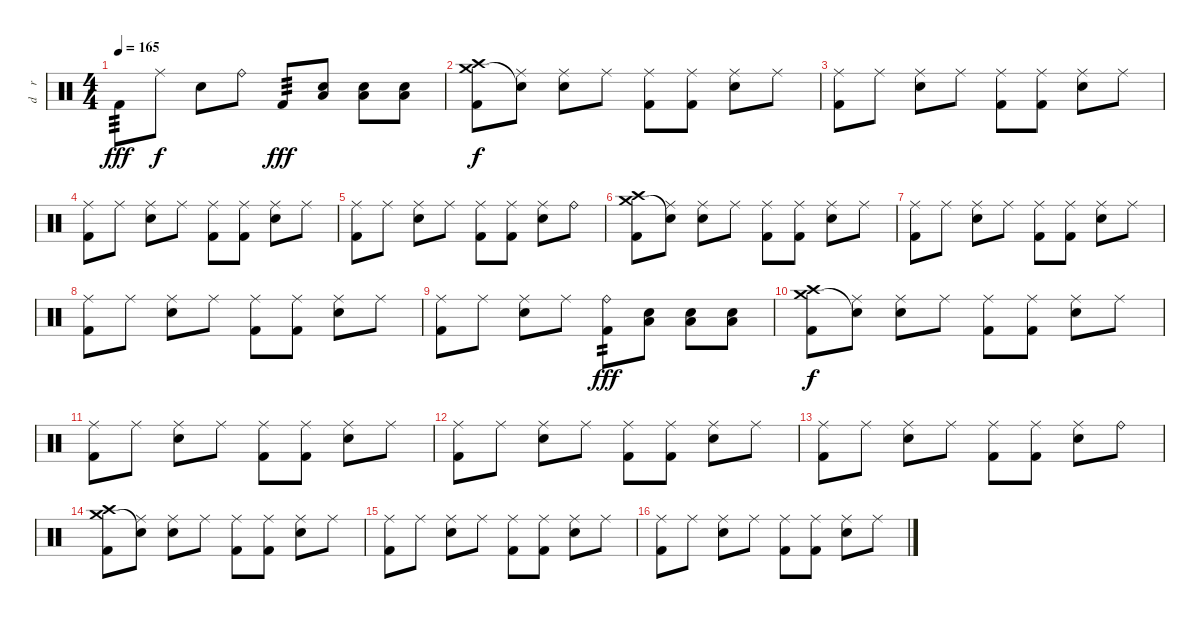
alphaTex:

\track ("d    r    u    m    s" "d    r    ") {instrument percussion}
\staff {score}
\articulation defaults
\ts (4 4)
\tempo 165
\clef neutral
\ks c "Kick (hit) 2".8{tp 3 dy fff} "Ride (middle)".8{dy f} "Electric Snare (hit)".8 "Ride (bell)".8 "Kick (hit) 2".8{tp 3 dy fff}
("Low Floor Tom (hit)" "Electric Snare (hit)").8 ("Low Floor Tom (hit)" "Electric Snare (hit)").8 ("Low Floor Tom (hit)" "Electric Snare (hit)").8 |
("Crash high (hit)" "Crash medium (hit)" "Kick (hit) 2").8{dy f} ("Ride (middle)" "Snare (hit)"{t}).8 ("Ride (middle)" "Electric Snare (hit)").8 "Ride (middle)".8 ("Ride (middle)" "Kick (hit) 2").8 ("Ride (middle)" "Kick (hit) 2").8 ("Ride (middle)" "Electric Snare (hit)").8 "Ride (middle)".8 |
("Ride (middle)" "Kick (hit) 2").8 "Ride (middle)".8 ("Ride (middle)" "Electric Snare (hit)").8 "Ride (middle)".8 ("Ride (middle)" "Kick (hit) 2").8 ("Ride (middle)" "Kick (hit) 2").8 ("Ride (middle)" "Electric Snare (hit)").8 "Ride (middle)".8 |
("Ride (middle)" "Kick (hit) 2").8 "Ride (middle)".8 ("Ride (middle)" "Electric Snare (hit)").8 "Ride (middle)".8 ("Ride (middle)" "Kick (hit) 2").8 ("Ride (middle)" "Kick (hit) 2").8 ("Ride (middle)" "Electric Snare (hit)").8 "Ride (middle)".8 |
("Ride (middle)" "Kick (hit) 2").8 "Ride (middle)".8 ("Ride (middle)" "Electric Snare (hit)").8 "Ride (middle)".8 ("Ride (middle)" "Kick (hit) 2").8 ("Ride (middle)" "Kick (hit) 2").8 ("Ride (middle)" "Electric Snare (hit)").8 "Ride (bell)".8 |
("Crash high (hit)" "Crash medium (hit)" "Kick (hit) 2").8 ("Ride (middle)" "Snare (hit)"{t}).8 ("Ride (middle)" "Electric Snare (hit)").8 "Ride (middle)".8 ("Ride (middle)" "Kick (hit) 2").8 ("Ride (middle)" "Kick (hit) 2").8 ("Ride (middle)" "Electric Snare (hit)").8 "Ride (middle)".8 |
("Ride (middle)" "Kick (hit) 2").8 "Ride (middle)".8 ("Ride (middle)" "Electric Snare (hit)").8 "Ride (middle)".8 ("Ride (middle)" "Kick (hit) 2").8 ("Ride (middle)" "Kick (hit) 2").8 ("Ride (middle)" "Electric Snare (hit)").8 "Ride (middle)".8 |
("Ride (middle)" "Kick (hit) 2").8 "Ride (middle)".8 ("Ride (middle)" "Electric Snare (hit)").8 "Ride (middle)".8 ("Ride (middle)" "Kick (hit) 2").8 ("Ride (middle)" "Kick (hit) 2").8 ("Ride (middle)" "Electric Snare (hit)").8 "Ride (middle)".8 |
("Ride (middle)" "Kick (hit) 2").8 "Ride (middle)".8 ("Ride (middle)" "Electric Snare (hit)").8 "Ride (middle)".8 ("Ride (bell)" "Kick (hit) 2").8{tp 2 dy fff} ("Low Floor Tom (hit)" "Electric Snare (hit)").8 ("Low Floor Tom (hit)" "Electric Snare (hit)").8 ("Low Floor Tom (hit)" "Electric Snare (hit)").8 |
("Crash high (hit)" "Crash medium (hit)" "Kick (hit) 2").8{dy f} ("Ride (middle)" "Snare (hit)"{t}).8 ("Ride (middle)" "Electric Snare (hit)").8 "Ride (middle)".8 ("Ride (middle)" "Kick (hit) 2").8 ("Ride (middle)" "Kick (hit) 2").8 ("Ride (middle)" "Electric Snare (hit)").8 "Ride (middle)".8 |
("Ride (middle)" "Kick (hit) 2").8 "Ride (middle)".8 ("Ride (middle)" "Electric Snare (hit)").8 "Ride (middle)".8 ("Ride (middle)" "Kick (hit) 2").8 ("Ride (middle)" "Kick (hit) 2").8 ("Ride (middle)" "Electric Snare (hit)").8 "Ride (middle)".8 |
("Ride (middle)" "Kick (hit) 2").8 "Ride (middle)".8 ("Ride (middle)" "Electric Snare (hit)").8 "Ride (middle)".8 ("Ride (middle)" "Kick (hit) 2").8 ("Ride (middle)" "Kick (hit) 2").8 ("Ride (middle)" "Electric Snare (hit)").8 "Ride (middle)".8 |
("Ride (middle)" "Kick (hit) 2").8 "Ride (middle)".8 ("Ride (middle)" "Electric Snare (hit)").8 "Ride (middle)".8 ("Ride (middle)" "Kick (hit) 2").8 ("Ride (middle)" "Kick (hit) 2").8 ("Ride (middle)" "Electric Snare (hit)").8 "Ride (bell)".8 |
("Crash high (hit)" "Crash medium (hit)" "Kick (hit) 2").8 ("Ride (middle)" "Snare (hit)"{t}).8 ("Ride (middle)" "Electric Snare (hit)").8 "Ride (middle)".8 ("Ride (middle)" "Kick (hit) 2").8 ("Ride (middle)" "Kick (hit) 2").8 ("Ride (middle)" "Electric Snare (hit)").8 "Ride (middle)".8 |
("Ride (middle)" "Kick (hit) 2").8 "Ride (middle)".8 ("Ride (middle)" "Electric Snare (hit)").8 "Ride (middle)".8 ("Ride (middle)" "Kick (hit) 2").8 ("Ride (middle)" "Kick (hit) 2").8 ("Ride (middle)" "Electric Snare (hit)").8 "Ride (middle)".8 |
("Ride (middle)" "Kick (hit) 2").8 "Ride (middle)".8 ("Ride (middle)" "Electric Snare (hit)").8 "Ride (middle)".8 ("Ride (middle)" "Kick (hit) 2").8 ("Ride (middle)" "Kick (hit) 2").8 ("Ride (middle)" "Electric Snare (hit)").8 "Ride (middle)".8
